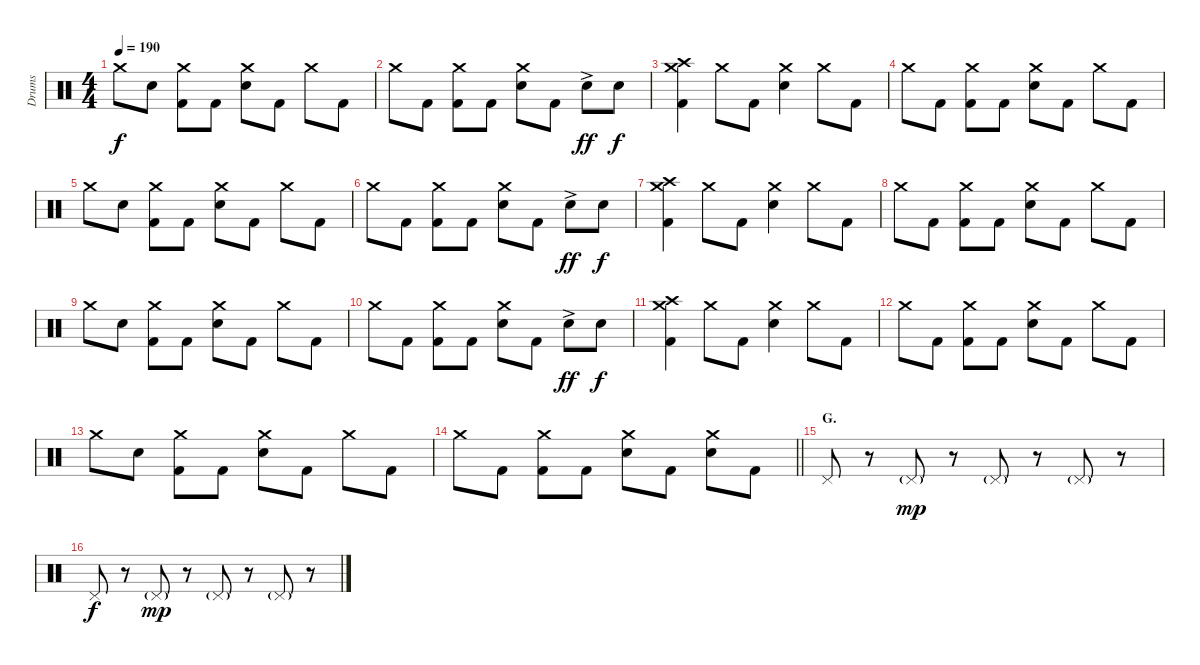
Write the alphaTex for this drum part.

\track ("Drums" "Drums") {instrument percussion}
\staff {score}
\articulation defaults
\ts (4 4)
\tempo 190
\clef neutral
\ks c "Crash medium (hit)".8{dy f} "Electric Snare (hit)".8
("Crash medium (hit)" "Kick (hit) 2").8 "Kick (hit) 2".8 ("Crash medium (hit)" "Electric Snare (hit)").8 "Kick (hit) 2".8 "Crash medium (hit)".8 "Kick (hit) 2".8 |
"Crash medium (hit)".8 "Kick (hit) 2".8 ("Crash medium (hit)" "Kick (hit) 2").8 "Kick (hit) 2".8 ("Crash medium (hit)" "Electric Snare (hit)").8 "Kick (hit) 2".8 "Electric Snare (hit)"{ac}.8{dy ff} "Electric Snare (hit)".8{dy f} |
("Crash medium (hit)" "Crash high (hit)" "Kick (hit) 2").4 "Crash medium (hit)".8 "Kick (hit) 2".8 ("Crash medium (hit)" "Electric Snare (hit)").4 "Crash medium (hit)".8 "Kick (hit) 2".8 |
"Crash medium (hit)".8 "Kick (hit) 2".8 ("Crash medium (hit)" "Kick (hit) 2").8 "Kick (hit) 2".8 ("Crash medium (hit)" "Electric Snare (hit)").8 "Kick (hit) 2".8 "Crash medium (hit)".8 "Kick (hit) 2".8 |
"Crash medium (hit)".8 "Electric Snare (hit)".8 ("Crash medium (hit)" "Kick (hit) 2").8 "Kick (hit) 2".8 ("Crash medium (hit)" "Electric Snare (hit)").8 "Kick (hit) 2".8 "Crash medium (hit)".8 "Kick (hit) 2".8 |
"Crash medium (hit)".8 "Kick (hit) 2".8 ("Crash medium (hit)" "Kick (hit) 2").8 "Kick (hit) 2".8 ("Crash medium (hit)" "Electric Snare (hit)").8 "Kick (hit) 2".8 "Electric Snare (hit)"{ac}.8{dy ff} "Electric Snare (hit)".8{dy f} |
("Crash medium (hit)" "Crash high (hit)" "Kick (hit) 2").4 "Crash medium (hit)".8 "Kick (hit) 2".8 ("Crash medium (hit)" "Electric Snare (hit)").4 "Crash medium (hit)".8 "Kick (hit) 2".8 |
"Crash medium (hit)".8 "Kick (hit) 2".8 ("Crash medium (hit)" "Kick (hit) 2").8 "Kick (hit) 2".8 ("Crash medium (hit)" "Electric Snare (hit)").8 "Kick (hit) 2".8 "Crash medium (hit)".8 "Kick (hit) 2".8 |
"Crash medium (hit)".8 "Electric Snare (hit)".8 ("Crash medium (hit)" "Kick (hit) 2").8 "Kick (hit) 2".8 ("Crash medium (hit)" "Electric Snare (hit)").8 "Kick (hit) 2".8 "Crash medium (hit)".8 "Kick (hit) 2".8 |
"Crash medium (hit)".8 "Kick (hit) 2".8 ("Crash medium (hit)" "Kick (hit) 2").8 "Kick (hit) 2".8 ("Crash medium (hit)" "Electric Snare (hit)").8 "Kick (hit) 2".8 "Electric Snare (hit)"{ac}.8{dy ff} "Electric Snare (hit)".8{dy f} |
("Crash medium (hit)" "Crash high (hit)" "Kick (hit) 2").4 "Crash medium (hit)".8 "Kick (hit) 2".8 ("Crash medium (hit)" "Electric Snare (hit)").4 "Crash medium (hit)".8 "Kick (hit) 2".8 |
"Crash medium (hit)".8 "Kick (hit) 2".8 ("Crash medium (hit)" "Kick (hit) 2").8 "Kick (hit) 2".8 ("Crash medium (hit)" "Electric Snare (hit)").8 "Kick (hit) 2".8 "Crash medium (hit)".8 "Kick (hit) 2".8 |
"Crash medium (hit)".8 "Electric Snare (hit)".8 ("Crash medium (hit)" "Kick (hit) 2").8 "Kick (hit) 2".8 ("Crash medium (hit)" "Electric Snare (hit)").8 "Kick (hit) 2".8 "Crash medium (hit)".8 "Kick (hit) 2".8 |
\barLineRight lightlight "Crash medium (hit)".8 "Kick (hit) 2".8
("Crash medium (hit)" "Kick (hit) 2").8 "Kick (hit) 2".8 ("Crash medium (hit)" "Electric Snare (hit)").8 "Kick (hit) 2".8 ("Crash medium (hit)" "Electric Snare (hit)").8 "Kick (hit) 2".8 |
\section ("" "G.")
"Pedal Hi-Hat (hit)".8 r.8 "Pedal Hi-Hat (hit)"{g}.8{dy mp} r.8 "Pedal Hi-Hat (hit)"{g}.8 r.8 "Pedal Hi-Hat (hit)"{g}.8 r.8 |
"Pedal Hi-Hat (hit)".8{dy f} r.8 "Pedal Hi-Hat (hit)"{g}.8{dy mp} r.8 "Pedal Hi-Hat (hit)"{g}.8 r.8 "Pedal Hi-Hat (hit)"{g}.8 r.8
